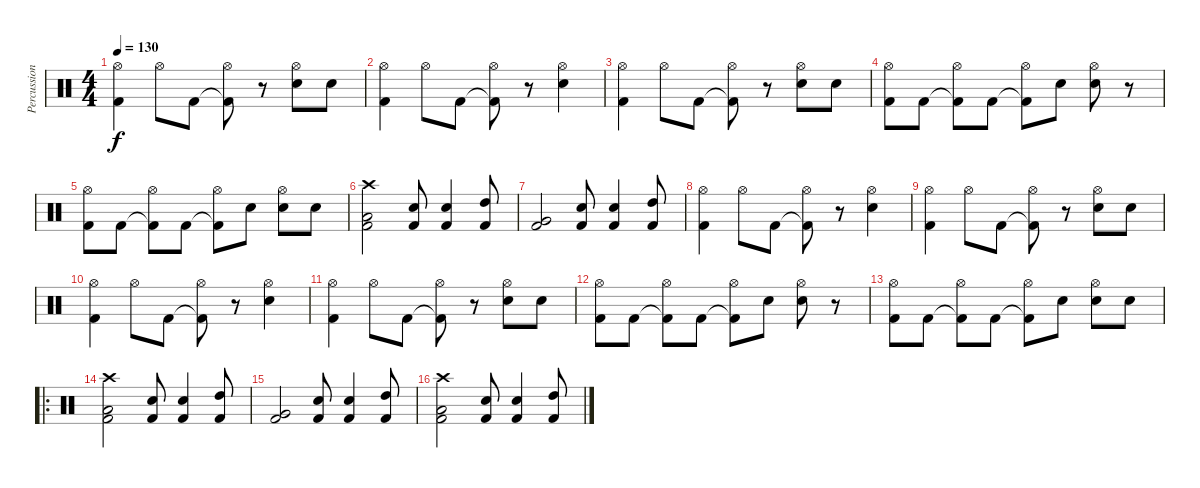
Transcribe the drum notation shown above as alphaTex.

\track ("Percussioni" "Percussion") {instrument percussion}
\staff {score}
\articulation defaults
\ts (4 4)
\tempo 130
\clef neutral
\ks c
("Kick (hit) 2" "Hi-Hat (open)").4{dy f} "Hi-Hat (open)".8 "Kick (hit) 2".8 ("Kick (hit) 2"{t} "Hi-Hat (open)").8 r.8 ("Snare (hit) 2" "Hi-Hat (open)").8 "Snare (hit) 2".8 |
("Kick (hit) 2" "Hi-Hat (open)").4 "Hi-Hat (open)".8 "Kick (hit) 2".8 ("Kick (hit) 2"{t} "Hi-Hat (open)").8 r.8 ("Snare (hit) 2" "Hi-Hat (open)").4 |
("Kick (hit) 2" "Hi-Hat (open)").4 "Hi-Hat (open)".8 "Kick (hit) 2".8 ("Kick (hit) 2"{t} "Hi-Hat (open)").8 r.8 ("Snare (hit) 2" "Hi-Hat (open)").8 "Snare (hit) 2".8 |
("Kick (hit) 2" "Hi-Hat (open)").8 "Kick (hit) 2".8 ("Kick (hit) 2"{t} "Hi-Hat (open)").8 "Kick (hit) 2".8 ("Kick (hit) 2"{t} "Hi-Hat (open)").8 "Snare (hit) 2".8 ("Snare (hit) 2" "Hi-Hat (open)").8 r.8 |
("Kick (hit) 2" "Hi-Hat (open)").8 "Kick (hit) 2".8 ("Kick (hit) 2"{t} "Hi-Hat (open)").8 "Kick (hit) 2".8 ("Kick (hit) 2"{t} "Hi-Hat (open)").8 "Snare (hit) 2".8 ("Snare (hit) 2" "Hi-Hat (open)").8 "Snare (hit) 2".8 |
("Kick (hit) 2" "Low Tom (hit)" "Crash high (hit)").2 ("Snare (hit) 2" "Kick (hit) 2").8 ("Snare (hit) 2" "Kick (hit) 2").4 ("High Tom (hit)" "Kick (hit) 2").8 |
("Kick (hit) 2" "Very Low Tom (hit)").2 ("Snare (hit) 2" "Kick (hit) 2").8 ("Snare (hit) 2" "Kick (hit) 2").4 ("High Tom (hit)" "Kick (hit) 2").8 |
("Kick (hit) 2" "Hi-Hat (open)").4 "Hi-Hat (open)".8 "Kick (hit) 2".8 ("Kick (hit) 2"{t} "Hi-Hat (open)").8 r.8 ("Snare (hit) 2" "Hi-Hat (open)").4 |
("Kick (hit) 2" "Hi-Hat (open)").4 "Hi-Hat (open)".8 "Kick (hit) 2".8 ("Kick (hit) 2"{t} "Hi-Hat (open)").8 r.8 ("Snare (hit) 2" "Hi-Hat (open)").8 "Snare (hit) 2".8 |
("Kick (hit) 2" "Hi-Hat (open)").4 "Hi-Hat (open)".8 "Kick (hit) 2".8 ("Kick (hit) 2"{t} "Hi-Hat (open)").8 r.8 ("Snare (hit) 2" "Hi-Hat (open)").4 |
("Kick (hit) 2" "Hi-Hat (open)").4 "Hi-Hat (open)".8 "Kick (hit) 2".8 ("Kick (hit) 2"{t} "Hi-Hat (open)").8 r.8 ("Snare (hit) 2" "Hi-Hat (open)").8 "Snare (hit) 2".8 |
("Kick (hit) 2" "Hi-Hat (open)").8 "Kick (hit) 2".8 ("Kick (hit) 2"{t} "Hi-Hat (open)").8 "Kick (hit) 2".8 ("Kick (hit) 2"{t} "Hi-Hat (open)").8 "Snare (hit) 2".8 ("Snare (hit) 2" "Hi-Hat (open)").8 r.8 |
("Kick (hit) 2" "Hi-Hat (open)").8 "Kick (hit) 2".8 ("Kick (hit) 2"{t} "Hi-Hat (open)").8 "Kick (hit) 2".8 ("Kick (hit) 2"{t} "Hi-Hat (open)").8 "Snare (hit) 2".8 ("Snare (hit) 2" "Hi-Hat (open)").8 "Snare (hit) 2".8 |
\ro
("Kick (hit) 2" "Low Tom (hit)" "Crash high (hit)").2 ("Snare (hit) 2" "Kick (hit) 2").8 ("Snare (hit) 2" "Kick (hit) 2").4 ("High Tom (hit)" "Kick (hit) 2").8 |
("Kick (hit) 2" "Very Low Tom (hit)").2 ("Snare (hit) 2" "Kick (hit) 2").8 ("Snare (hit) 2" "Kick (hit) 2").4 ("High Tom (hit)" "Kick (hit) 2").8 |
("Kick (hit) 2" "Low Tom (hit)" "Crash high (hit)").2 ("Snare (hit) 2" "Kick (hit) 2").8 ("Snare (hit) 2" "Kick (hit) 2").4 ("High Tom (hit)" "Kick (hit) 2").8
